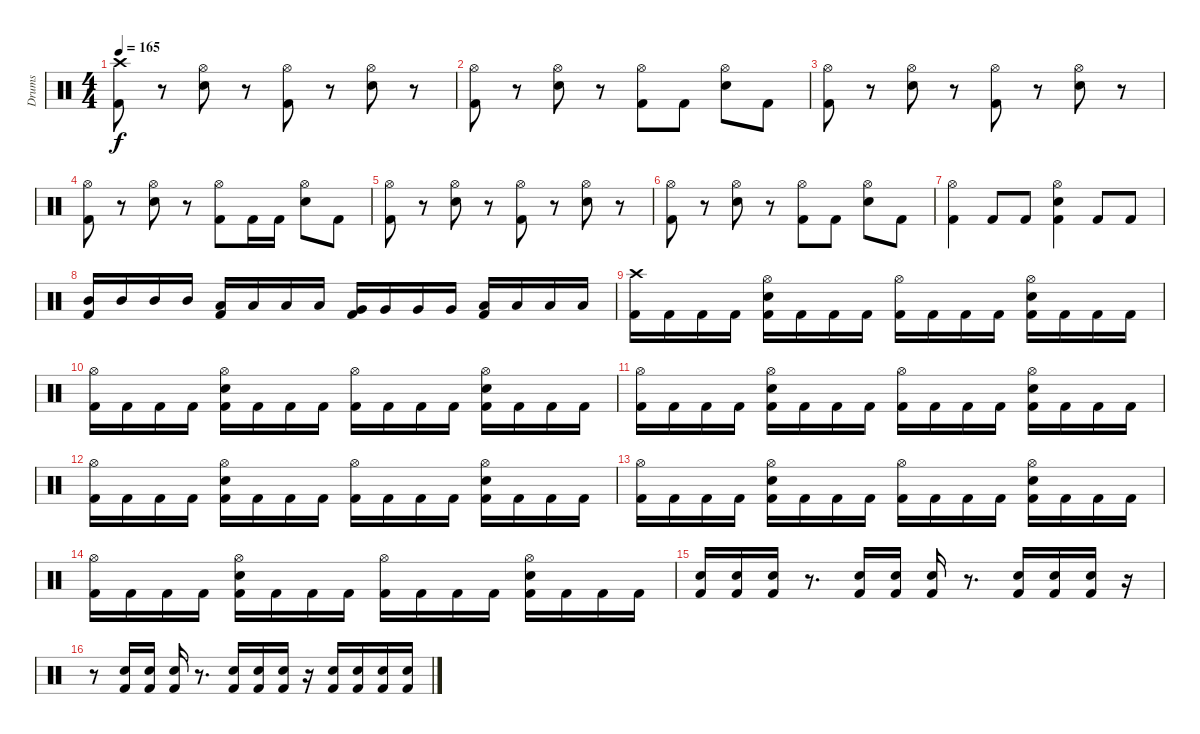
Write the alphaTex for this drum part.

\track ("Drums" "Drums") {instrument percussion}
\staff {score}
\articulation defaults
\ts (4 4)
\tempo 165
\clef neutral
\ks c
("Kick (hit) 2" "Crash high (hit)").8{dy f} r.8 ("Electric Snare (hit)" "Hi-Hat (open)").8 r.8 ("Kick (hit) 2" "Hi-Hat (open)").8 r.8 ("Electric Snare (hit)" "Hi-Hat (open)").8 r.8 |
("Kick (hit) 2" "Hi-Hat (open)").8 r.8 ("Electric Snare (hit)" "Hi-Hat (open)").8 r.8 ("Kick (hit) 2" "Hi-Hat (open)").8 "Kick (hit) 2".8 ("Electric Snare (hit)" "Hi-Hat (open)").8 "Kick (hit) 2".8 |
("Kick (hit) 2" "Hi-Hat (open)").8 r.8 ("Electric Snare (hit)" "Hi-Hat (open)").8 r.8 ("Kick (hit) 2" "Hi-Hat (open)").8 r.8 ("Electric Snare (hit)" "Hi-Hat (open)").8 r.8 |
("Kick (hit) 2" "Hi-Hat (open)").8 r.8 ("Electric Snare (hit)" "Hi-Hat (open)").8 r.8 ("Kick (hit) 2" "Hi-Hat (open)").8 "Kick (hit) 2".16 "Kick (hit) 2".16 ("Electric Snare (hit)" "Hi-Hat (open)").8 "Kick (hit) 2".8 |
("Kick (hit) 2" "Hi-Hat (open)").8 r.8 ("Electric Snare (hit)" "Hi-Hat (open)").8 r.8 ("Kick (hit) 2" "Hi-Hat (open)").8 r.8 ("Electric Snare (hit)" "Hi-Hat (open)").8 r.8 |
("Kick (hit) 2" "Hi-Hat (open)").8 r.8 ("Electric Snare (hit)" "Hi-Hat (open)").8 r.8 ("Kick (hit) 2" "Hi-Hat (open)").8 "Kick (hit) 2".8 ("Electric Snare (hit)" "Hi-Hat (open)").8 "Kick (hit) 2".8 |
("Kick (hit) 2" "Hi-Hat (open)").4 "Kick (hit) 2".8 "Kick (hit) 2".8 ("Kick (hit) 2" "Electric Snare (hit)" "Hi-Hat (open)").4 "Kick (hit) 2".8 "Kick (hit) 2".8 |
("Kick (hit) 2" "Mid Tom (hit)").16 "Mid Tom (hit)".16 "Mid Tom (hit)".16 "Mid Tom (hit)".16 ("Kick (hit) 2" "Low Tom (hit)").16 "Low Tom (hit)".16 "Low Tom (hit)".16 "Low Tom (hit)".16 ("Kick (hit) 2" "Very Low Tom (hit)").16 "Very Low Tom (hit)".16 "Very Low Tom (hit)".16 "Very Low Tom (hit)".16 ("Kick (hit) 2" "Low Floor Tom (hit)").16 "Low Floor Tom (hit)".16 "Low Floor Tom (hit)".16 "Low Floor Tom (hit)".16 |
("Kick (hit) 2" "Crash high (hit)").16 "Kick (hit) 2".16 "Kick (hit) 2".16 "Kick (hit) 2".16 ("Kick (hit) 2" "Electric Snare (hit)" "Hi-Hat (open)").16 "Kick (hit) 2".16 "Kick (hit) 2".16 "Kick (hit) 2".16 ("Kick (hit) 2" "Hi-Hat (open)").16 "Kick (hit) 2".16 "Kick (hit) 2".16 "Kick (hit) 2".16 ("Kick (hit) 2" "Electric Snare (hit)" "Hi-Hat (open)").16 "Kick (hit) 2".16 "Kick (hit) 2".16 "Kick (hit) 2".16 |
("Kick (hit) 2" "Hi-Hat (open)").16 "Kick (hit) 2".16 "Kick (hit) 2".16 "Kick (hit) 2".16 ("Kick (hit) 2" "Electric Snare (hit)" "Hi-Hat (open)").16 "Kick (hit) 2".16 "Kick (hit) 2".16 "Kick (hit) 2".16 ("Kick (hit) 2" "Hi-Hat (open)").16 "Kick (hit) 2".16 "Kick (hit) 2".16 "Kick (hit) 2".16 ("Kick (hit) 2" "Electric Snare (hit)" "Hi-Hat (open)").16 "Kick (hit) 2".16 "Kick (hit) 2".16 "Kick (hit) 2".16 |
("Kick (hit) 2" "Hi-Hat (open)").16 "Kick (hit) 2".16 "Kick (hit) 2".16 "Kick (hit) 2".16 ("Kick (hit) 2" "Electric Snare (hit)" "Hi-Hat (open)").16 "Kick (hit) 2".16 "Kick (hit) 2".16 "Kick (hit) 2".16 ("Kick (hit) 2" "Hi-Hat (open)").16 "Kick (hit) 2".16 "Kick (hit) 2".16 "Kick (hit) 2".16 ("Kick (hit) 2" "Electric Snare (hit)" "Hi-Hat (open)").16 "Kick (hit) 2".16 "Kick (hit) 2".16 "Kick (hit) 2".16 |
("Kick (hit) 2" "Hi-Hat (open)").16 "Kick (hit) 2".16 "Kick (hit) 2".16 "Kick (hit) 2".16 ("Kick (hit) 2" "Electric Snare (hit)" "Hi-Hat (open)").16 "Kick (hit) 2".16 "Kick (hit) 2".16 "Kick (hit) 2".16 ("Kick (hit) 2" "Hi-Hat (open)").16 "Kick (hit) 2".16 "Kick (hit) 2".16 "Kick (hit) 2".16 ("Kick (hit) 2" "Electric Snare (hit)" "Hi-Hat (open)").16 "Kick (hit) 2".16 "Kick (hit) 2".16 "Kick (hit) 2".16 |
("Kick (hit) 2" "Hi-Hat (open)").16 "Kick (hit) 2".16 "Kick (hit) 2".16 "Kick (hit) 2".16 ("Kick (hit) 2" "Electric Snare (hit)" "Hi-Hat (open)").16 "Kick (hit) 2".16 "Kick (hit) 2".16 "Kick (hit) 2".16 ("Kick (hit) 2" "Hi-Hat (open)").16 "Kick (hit) 2".16 "Kick (hit) 2".16 "Kick (hit) 2".16 ("Kick (hit) 2" "Electric Snare (hit)" "Hi-Hat (open)").16 "Kick (hit) 2".16 "Kick (hit) 2".16 "Kick (hit) 2".16 |
("Kick (hit) 2" "Hi-Hat (open)").16 "Kick (hit) 2".16 "Kick (hit) 2".16 "Kick (hit) 2".16 ("Kick (hit) 2" "Electric Snare (hit)" "Hi-Hat (open)").16 "Kick (hit) 2".16 "Kick (hit) 2".16 "Kick (hit) 2".16 ("Kick (hit) 2" "Hi-Hat (open)").16 "Kick (hit) 2".16 "Kick (hit) 2".16 "Kick (hit) 2".16 ("Kick (hit) 2" "Electric Snare (hit)" "Hi-Hat (open)").16 "Kick (hit) 2".16 "Kick (hit) 2".16 "Kick (hit) 2".16 |
("Kick (hit) 2" "Electric Snare (hit)").16 ("Kick (hit) 2" "Electric Snare (hit)").16 ("Kick (hit) 2" "Electric Snare (hit)").16 r.8{d} ("Kick (hit) 2" "Electric Snare (hit)").16 ("Kick (hit) 2" "Electric Snare (hit)").16 ("Kick (hit) 2" "Electric Snare (hit)").16 r.8{d} ("Kick (hit) 2" "Electric Snare (hit)").16 ("Kick (hit) 2" "Electric Snare (hit)").16 ("Kick (hit) 2" "Electric Snare (hit)").16 r.16 |
r.8 ("Kick (hit) 2" "Electric Snare (hit)").16 ("Kick (hit) 2" "Electric Snare (hit)").16 ("Kick (hit) 2" "Electric Snare (hit)").16 r.8{d} ("Kick (hit) 2" "Electric Snare (hit)").16 ("Kick (hit) 2" "Electric Snare (hit)").16 ("Kick (hit) 2" "Electric Snare (hit)").16 r.16 ("Kick (hit) 2" "Electric Snare (hit)").16 ("Kick (hit) 2" "Electric Snare (hit)").16 ("Kick (hit) 2" "Electric Snare (hit)").16 ("Kick (hit) 2" "Electric Snare (hit)").16
